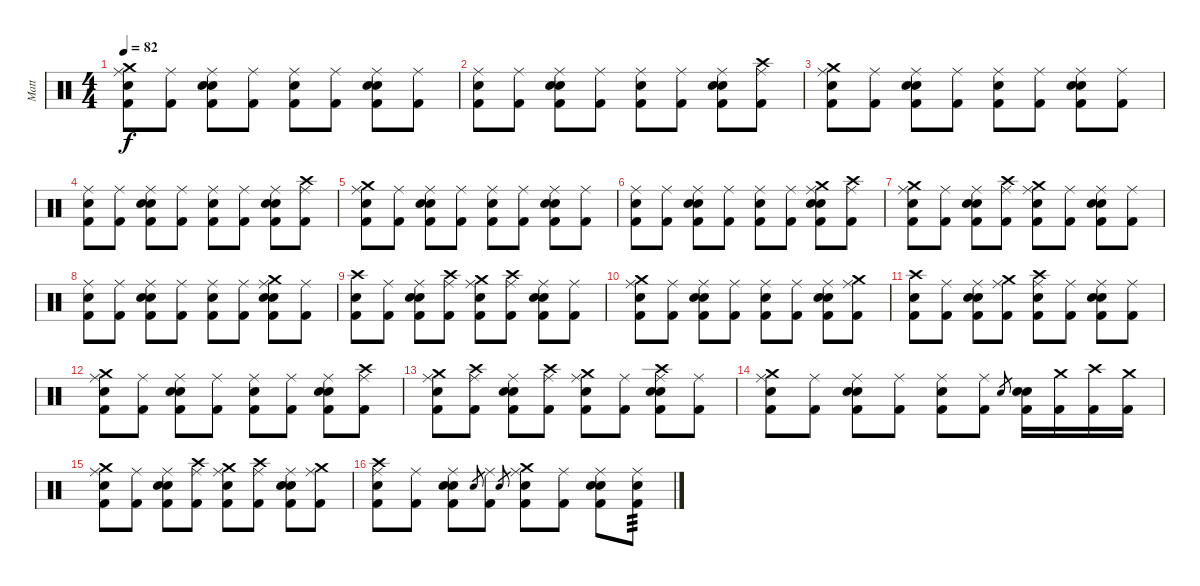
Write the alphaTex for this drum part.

\track ("Matt" "Matt") {instrument percussion}
\staff {score}
\articulation defaults
\ts (4 4)
\tempo 82
\clef neutral
\ks c
("Crash medium (hit)" "Hand Clap (hit)" "Ride (middle)" "Kick (hit) 2").8{dy f} ("Ride (middle)" "Kick (hit) 2").8 ("Hand Clap (hit)" "Ride (middle)" "Electric Snare (hit)" "Kick (hit) 2").8 ("Ride (middle)" "Kick (hit) 2").8 ("Hand Clap (hit)" "Ride (middle)" "Kick (hit) 2").8 ("Ride (middle)" "Kick (hit) 2").8 ("Hand Clap (hit)" "Ride (middle)" "Electric Snare (hit)" "Kick (hit) 2").8 ("Ride (middle)" "Kick (hit) 2").8 |
("Hand Clap (hit)" "Ride (middle)" "Kick (hit) 2").8 ("Ride (middle)" "Kick (hit) 2").8 ("Hand Clap (hit)" "Ride (middle)" "Electric Snare (hit)" "Kick (hit) 2").8 ("Ride (middle)" "Kick (hit) 2").8 ("Hand Clap (hit)" "Ride (middle)" "Kick (hit) 2").8 ("Ride (middle)" "Kick (hit) 2").8 ("Hand Clap (hit)" "Ride (middle)" "Electric Snare (hit)" "Kick (hit) 2").8 ("Crash high (hit)" "Ride (middle)" "Kick (hit) 2").8 |
("Crash medium (hit)" "Hand Clap (hit)" "Ride (middle)" "Kick (hit) 2").8 ("Ride (middle)" "Kick (hit) 2").8 ("Hand Clap (hit)" "Ride (middle)" "Electric Snare (hit)" "Kick (hit) 2").8 ("Ride (middle)" "Kick (hit) 2").8 ("Hand Clap (hit)" "Ride (middle)" "Kick (hit) 2").8 ("Ride (middle)" "Kick (hit) 2").8 ("Hand Clap (hit)" "Ride (middle)" "Electric Snare (hit)" "Kick (hit) 2").8 ("Ride (middle)" "Kick (hit) 2").8 |
("Hand Clap (hit)" "Ride (middle)" "Kick (hit) 2").8 ("Ride (middle)" "Kick (hit) 2").8 ("Hand Clap (hit)" "Ride (middle)" "Electric Snare (hit)" "Kick (hit) 2").8 ("Ride (middle)" "Kick (hit) 2").8 ("Hand Clap (hit)" "Ride (middle)" "Kick (hit) 2").8 ("Ride (middle)" "Kick (hit) 2").8 ("Hand Clap (hit)" "Ride (middle)" "Electric Snare (hit)" "Kick (hit) 2").8 ("Crash high (hit)" "Ride (middle)" "Kick (hit) 2").8 |
("Crash medium (hit)" "Hand Clap (hit)" "Ride (middle)" "Kick (hit) 2").8 ("Ride (middle)" "Kick (hit) 2").8 ("Hand Clap (hit)" "Ride (middle)" "Electric Snare (hit)" "Kick (hit) 2").8 ("Ride (middle)" "Kick (hit) 2").8 ("Hand Clap (hit)" "Ride (middle)" "Kick (hit) 2").8 ("Ride (middle)" "Kick (hit) 2").8 ("Hand Clap (hit)" "Ride (middle)" "Electric Snare (hit)" "Kick (hit) 2").8 ("Ride (middle)" "Kick (hit) 2").8 |
("Hand Clap (hit)" "Ride (middle)" "Kick (hit) 2").8 ("Ride (middle)" "Kick (hit) 2").8 ("Hand Clap (hit)" "Ride (middle)" "Electric Snare (hit)" "Kick (hit) 2").8 ("Ride (middle)" "Kick (hit) 2").8 ("Hand Clap (hit)" "Ride (middle)" "Kick (hit) 2").8 ("Ride (middle)" "Kick (hit) 2").8 ("Crash medium (hit)" "Hand Clap (hit)" "Ride (middle)" "Electric Snare (hit)" "Kick (hit) 2").8 ("Crash high (hit)" "Ride (middle)" "Kick (hit) 2").8 |
("Crash medium (hit)" "Hand Clap (hit)" "Ride (middle)" "Kick (hit) 2").8 ("Ride (middle)" "Kick (hit) 2").8 ("Hand Clap (hit)" "Ride (middle)" "Electric Snare (hit)" "Kick (hit) 2").8 ("Crash high (hit)" "Ride (middle)" "Kick (hit) 2").8 ("Crash medium (hit)" "Hand Clap (hit)" "Ride (middle)" "Kick (hit) 2").8 ("Ride (middle)" "Kick (hit) 2").8 ("Hand Clap (hit)" "Ride (middle)" "Electric Snare (hit)" "Kick (hit) 2").8 ("Ride (middle)" "Kick (hit) 2").8 |
("Hand Clap (hit)" "Ride (middle)" "Kick (hit) 2").8 ("Ride (middle)" "Kick (hit) 2").8 ("Hand Clap (hit)" "Ride (middle)" "Electric Snare (hit)" "Kick (hit) 2").8 ("Ride (middle)" "Kick (hit) 2").8 ("Hand Clap (hit)" "Ride (middle)" "Kick (hit) 2").8 ("Ride (middle)" "Kick (hit) 2").8 ("Crash medium (hit)" "Hand Clap (hit)" "Ride (middle)" "Electric Snare (hit)" "Kick (hit) 2").8 ("Ride (middle)" "Kick (hit) 2").8 |
("Crash high (hit)" "Hand Clap (hit)" "Kick (hit) 2").8 ("Ride (middle)" "Kick (hit) 2").8 ("Hand Clap (hit)" "Ride (middle)" "Electric Snare (hit)" "Kick (hit) 2").8 ("Crash high (hit)" "Ride (middle)" "Kick (hit) 2").8 ("Crash medium (hit)" "Hand Clap (hit)" "Ride (middle)" "Kick (hit) 2").8 ("Crash high (hit)" "Ride (middle)" "Kick (hit) 2").8 ("Hand Clap (hit)" "Ride (middle)" "Electric Snare (hit)" "Kick (hit) 2").8 ("Ride (middle)" "Kick (hit) 2").8 |
("Crash medium (hit)" "Hand Clap (hit)" "Ride (middle)" "Kick (hit) 2").8 ("Ride (middle)" "Kick (hit) 2").8 ("Hand Clap (hit)" "Ride (middle)" "Electric Snare (hit)" "Kick (hit) 2").8 ("Ride (middle)" "Kick (hit) 2").8 ("Hand Clap (hit)" "Ride (middle)" "Kick (hit) 2").8 ("Ride (middle)" "Kick (hit) 2").8 ("Hand Clap (hit)" "Ride (middle)" "Electric Snare (hit)" "Kick (hit) 2").8 ("Crash medium (hit)" "Ride (middle)" "Kick (hit) 2").8 |
("Crash high (hit)" "Hand Clap (hit)" "Kick (hit) 2").8 ("Ride (middle)" "Kick (hit) 2").8 ("Hand Clap (hit)" "Ride (middle)" "Electric Snare (hit)" "Kick (hit) 2").8 ("Crash medium (hit)" "Ride (middle)" "Kick (hit) 2").8 ("Crash high (hit)" "Hand Clap (hit)" "Ride (middle)" "Kick (hit) 2").8 ("Ride (middle)" "Kick (hit) 2").8 ("Hand Clap (hit)" "Ride (middle)" "Electric Snare (hit)" "Kick (hit) 2").8 ("Ride (middle)" "Kick (hit) 2").8 |
("Crash medium (hit)" "Hand Clap (hit)" "Ride (middle)" "Kick (hit) 2").8 ("Ride (middle)" "Kick (hit) 2").8 ("Hand Clap (hit)" "Ride (middle)" "Electric Snare (hit)" "Kick (hit) 2").8 ("Ride (middle)" "Kick (hit) 2").8 ("Hand Clap (hit)" "Ride (middle)" "Kick (hit) 2").8 ("Ride (middle)" "Kick (hit) 2").8 ("Hand Clap (hit)" "Ride (middle)" "Electric Snare (hit)" "Kick (hit) 2").8 ("Crash high (hit)" "Ride (middle)" "Kick (hit) 2").8 |
("Crash medium (hit)" "Hand Clap (hit)" "Ride (middle)" "Kick (hit) 2").8 ("Crash high (hit)" "Ride (middle)" "Kick (hit) 2").8 ("Hand Clap (hit)" "Ride (middle)" "Electric Snare (hit)" "Kick (hit) 2").8 ("Crash high (hit)" "Ride (middle)" "Kick (hit) 2").8 ("Crash medium (hit)" "Hand Clap (hit)" "Ride (middle)" "Kick (hit) 2").8 ("Ride (middle)" "Kick (hit) 2").8 ("Crash high (hit)" "Hand Clap (hit)" "Ride (middle)" "Electric Snare (hit)" "Kick (hit) 2").8 ("Ride (middle)" "Kick (hit) 2").8 |
("Crash medium (hit)" "Hand Clap (hit)" "Ride (middle)" "Kick (hit) 2").8 ("Ride (middle)" "Kick (hit) 2").8 ("Hand Clap (hit)" "Ride (middle)" "Electric Snare (hit)" "Kick (hit) 2").8 ("Ride (middle)" "Kick (hit) 2").8 ("Hand Clap (hit)" "Ride (middle)" "Kick (hit) 2").8 ("Ride (middle)" "Kick (hit) 2").8 "Electric Snare (hit)".8{gr} ("Hand Clap (hit)" "Electric Snare (hit)" "Kick (hit) 2").16 ("Crash medium (hit)" "Kick (hit) 2").16 ("Crash high (hit)" "Kick (hit) 2").16 ("Crash medium (hit)" "Kick (hit) 2").16 |
("Crash medium (hit)" "Hand Clap (hit)" "Ride (middle)" "Kick (hit) 2").8 ("Ride (middle)" "Kick (hit) 2").8 ("Hand Clap (hit)" "Ride (middle)" "Electric Snare (hit)" "Kick (hit) 2").8 ("Crash high (hit)" "Ride (middle)" "Kick (hit) 2").8 ("Crash medium (hit)" "Hand Clap (hit)" "Ride (middle)" "Kick (hit) 2").8 ("Crash high (hit)" "Ride (middle)" "Kick (hit) 2").8 ("Hand Clap (hit)" "Ride (middle)" "Electric Snare (hit)" "Kick (hit) 2").8 ("Crash medium (hit)" "Ride (middle)" "Kick (hit) 2").8 |
("Crash high (hit)" "Hand Clap (hit)" "Ride (middle)" "Kick (hit) 2").8 ("Ride (middle)" "Kick (hit) 2").8 ("Hand Clap (hit)" "Ride (middle)" "Electric Snare (hit)" "Kick (hit) 2").8 "Electric Snare (hit)".8{gr} ("Ride (middle)" "Kick (hit) 2").8 "Electric Snare (hit)".8{gr} ("Crash medium (hit)" "Hand Clap (hit)" "Ride (middle)" "Kick (hit) 2").8 ("Ride (middle)" "Kick (hit) 2").8 ("Hand Clap (hit)" "Ride (middle)" "Electric Snare (hit)" "Kick (hit) 2").8 ("Ride (middle)" "Electric Snare (hit)" "Kick (hit) 2").8{tp 3}
